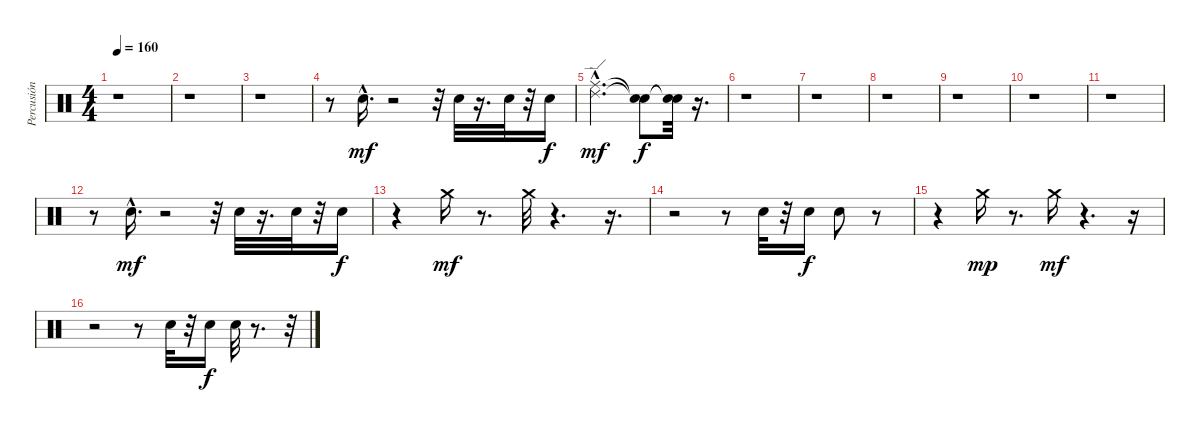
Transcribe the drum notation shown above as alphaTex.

\track ("Percusión" "Percusión") {instrument percussion}
\staff {score}
\articulation defaults
\ts (4 4)
\tempo 160
\clef neutral
\ks c
r.1{dy f} |
r.1 |
r.1 |
r.8 "Electric Snare (hit)"{hac}.16{d dy mf} r.2 r.32 "Electric Snare (hit)".32 r.16{d} "Electric Snare (hit)".32 r.32 "Electric Snare (hit)".16{dy f} |
("Ride (edge) 2"{hac} "Ride (middle)"{hac}).2{d dy mf} ("Snare (hit)"{t} "Snare (hit)"{t}).8{dy f} ("Snare (hit)"{t} "Snare (hit)"{t}).32 r.16{d} |
r.1 |
r.1 |
r.1 |
r.1 |
r.1 |
r.1 |
r.8 "Electric Snare (hit)"{hac}.16{d dy mf} r.2 r.32 "Electric Snare (hit)".32 r.16{d} "Electric Snare (hit)".32 r.32 "Electric Snare (hit)".16{dy f} |
r.4 "Crash medium (hit)".16{dy mf} r.8{d} "Crash medium (hit)".32 r.4{d} r.16{d} |
r.2 r.8 "Electric Snare (hit)".32 r.32 "Electric Snare (hit)".16{dy f} "Electric Snare (hit)".8 r.8 |
r.4 "Crash medium (hit)".16{dy mp} r.8{d} "Crash medium (hit)".16{dy mf} r.4{d} r.16 |
r.2 r.8 "Electric Snare (hit)".32 r.32 "Electric Snare (hit)".16{dy f} "Electric Snare (hit)".32 r.8{d} r.32
